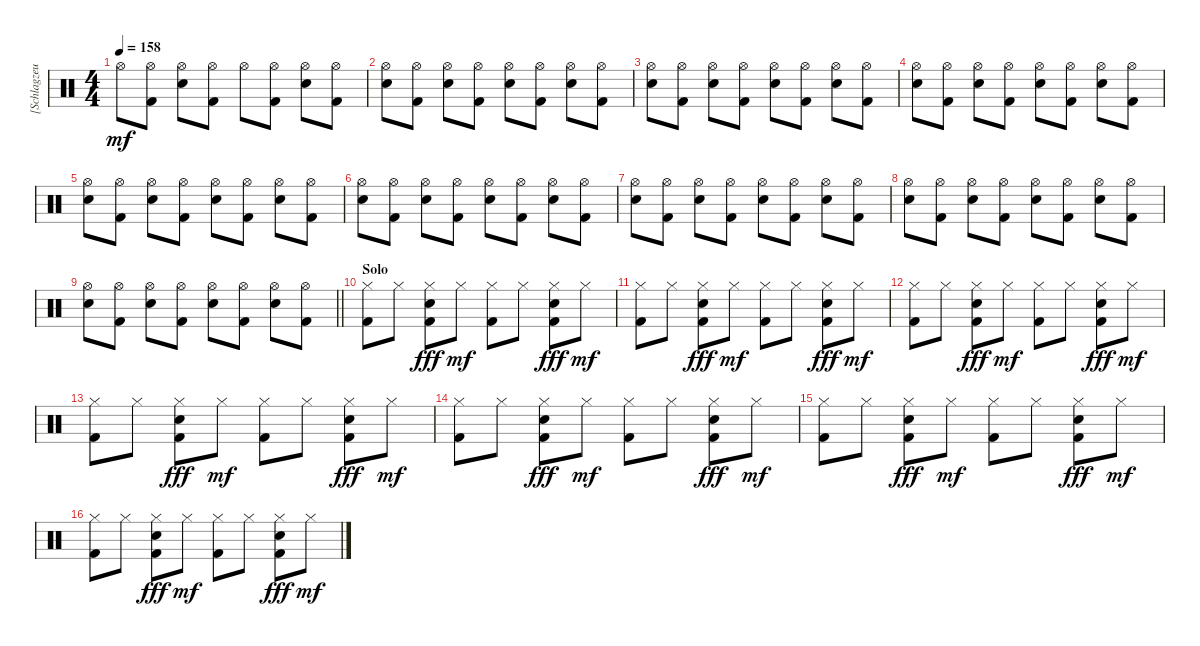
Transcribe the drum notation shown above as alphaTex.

\track ("[Schlagzeug]" "[Schlagzeu") {instrument percussion}
\staff {score}
\articulation defaults
\ts (4 4)
\tempo 158
\clef neutral
\ks c "Hi-Hat (open)".8{dy mf}
("Kick (hit) 2" "Hi-Hat (open)").8 ("Electric Snare (hit)" "Hi-Hat (open)").8 ("Kick (hit) 2" "Hi-Hat (open)").8 "Hi-Hat (open)".8 ("Kick (hit) 2" "Hi-Hat (open)").8 ("Electric Snare (hit)" "Hi-Hat (open)").8 ("Kick (hit) 2" "Hi-Hat (open)").8 |
("Electric Snare (hit)" "Hi-Hat (open)").8 ("Kick (hit) 2" "Hi-Hat (open)").8 ("Electric Snare (hit)" "Hi-Hat (open)").8 ("Kick (hit) 2" "Hi-Hat (open)").8 ("Electric Snare (hit)" "Hi-Hat (open)").8 ("Kick (hit) 2" "Hi-Hat (open)").8 ("Electric Snare (hit)" "Hi-Hat (open)").8 ("Kick (hit) 2" "Hi-Hat (open)").8 |
("Electric Snare (hit)" "Hi-Hat (open)").8 ("Kick (hit) 2" "Hi-Hat (open)").8 ("Electric Snare (hit)" "Hi-Hat (open)").8 ("Kick (hit) 2" "Hi-Hat (open)").8 ("Electric Snare (hit)" "Hi-Hat (open)").8 ("Kick (hit) 2" "Hi-Hat (open)").8 ("Electric Snare (hit)" "Hi-Hat (open)").8 ("Kick (hit) 2" "Hi-Hat (open)").8 |
("Electric Snare (hit)" "Hi-Hat (open)").8 ("Kick (hit) 2" "Hi-Hat (open)").8 ("Electric Snare (hit)" "Hi-Hat (open)").8 ("Kick (hit) 2" "Hi-Hat (open)").8 ("Electric Snare (hit)" "Hi-Hat (open)").8 ("Kick (hit) 2" "Hi-Hat (open)").8 ("Electric Snare (hit)" "Hi-Hat (open)").8 ("Kick (hit) 2" "Hi-Hat (open)").8 |
("Electric Snare (hit)" "Hi-Hat (open)").8 ("Kick (hit) 2" "Hi-Hat (open)").8 ("Electric Snare (hit)" "Hi-Hat (open)").8 ("Kick (hit) 2" "Hi-Hat (open)").8 ("Electric Snare (hit)" "Hi-Hat (open)").8 ("Kick (hit) 2" "Hi-Hat (open)").8 ("Electric Snare (hit)" "Hi-Hat (open)").8 ("Kick (hit) 2" "Hi-Hat (open)").8 |
("Electric Snare (hit)" "Hi-Hat (open)").8 ("Kick (hit) 2" "Hi-Hat (open)").8 ("Electric Snare (hit)" "Hi-Hat (open)").8 ("Kick (hit) 2" "Hi-Hat (open)").8 ("Electric Snare (hit)" "Hi-Hat (open)").8 ("Kick (hit) 2" "Hi-Hat (open)").8 ("Electric Snare (hit)" "Hi-Hat (open)").8 ("Kick (hit) 2" "Hi-Hat (open)").8 |
("Electric Snare (hit)" "Hi-Hat (open)").8 ("Kick (hit) 2" "Hi-Hat (open)").8 ("Electric Snare (hit)" "Hi-Hat (open)").8 ("Kick (hit) 2" "Hi-Hat (open)").8 ("Electric Snare (hit)" "Hi-Hat (open)").8 ("Kick (hit) 2" "Hi-Hat (open)").8 ("Electric Snare (hit)" "Hi-Hat (open)").8 ("Kick (hit) 2" "Hi-Hat (open)").8 |
("Electric Snare (hit)" "Hi-Hat (open)").8 ("Kick (hit) 2" "Hi-Hat (open)").8 ("Electric Snare (hit)" "Hi-Hat (open)").8 ("Kick (hit) 2" "Hi-Hat (open)").8 ("Electric Snare (hit)" "Hi-Hat (open)").8 ("Kick (hit) 2" "Hi-Hat (open)").8 ("Electric Snare (hit)" "Hi-Hat (open)").8 ("Kick (hit) 2" "Hi-Hat (open)").8 |
\barLineRight lightlight
("Electric Snare (hit)" "Hi-Hat (open)").8 ("Kick (hit) 2" "Hi-Hat (open)").8 ("Electric Snare (hit)" "Hi-Hat (open)").8 ("Kick (hit) 2" "Hi-Hat (open)").8 ("Electric Snare (hit)" "Hi-Hat (open)").8 ("Kick (hit) 2" "Hi-Hat (open)").8 ("Electric Snare (hit)" "Hi-Hat (open)").8 ("Kick (hit) 2" "Hi-Hat (open)").8 |
\section ("" "Solo")
("Kick (hit) 2" "Hi-Hat (closed)").8 "Hi-Hat (closed)".8 ("Electric Snare (hit)" "Hi-Hat (closed)" "Kick (hit) 2").8{dy fff} "Hi-Hat (closed)".8{dy mf} ("Kick (hit) 2" "Hi-Hat (closed)").8 "Hi-Hat (closed)".8 ("Electric Snare (hit)" "Hi-Hat (closed)" "Kick (hit) 2").8{dy fff} "Hi-Hat (closed)".8{dy mf} |
("Kick (hit) 2" "Hi-Hat (closed)").8 "Hi-Hat (closed)".8 ("Electric Snare (hit)" "Hi-Hat (closed)" "Kick (hit) 2").8{dy fff} "Hi-Hat (closed)".8{dy mf} ("Kick (hit) 2" "Hi-Hat (closed)").8 "Hi-Hat (closed)".8 ("Electric Snare (hit)" "Hi-Hat (closed)" "Kick (hit) 2").8{dy fff} "Hi-Hat (closed)".8{dy mf} |
("Kick (hit) 2" "Hi-Hat (closed)").8 "Hi-Hat (closed)".8 ("Electric Snare (hit)" "Hi-Hat (closed)" "Kick (hit) 2").8{dy fff} "Hi-Hat (closed)".8{dy mf} ("Kick (hit) 2" "Hi-Hat (closed)").8 "Hi-Hat (closed)".8 ("Electric Snare (hit)" "Hi-Hat (closed)" "Kick (hit) 2").8{dy fff} "Hi-Hat (closed)".8{dy mf} |
("Kick (hit) 2" "Hi-Hat (closed)").8 "Hi-Hat (closed)".8 ("Electric Snare (hit)" "Hi-Hat (closed)" "Kick (hit) 2").8{dy fff} "Hi-Hat (closed)".8{dy mf} ("Kick (hit) 2" "Hi-Hat (closed)").8 "Hi-Hat (closed)".8 ("Electric Snare (hit)" "Hi-Hat (closed)" "Kick (hit) 2").8{dy fff} "Hi-Hat (closed)".8{dy mf} |
("Kick (hit) 2" "Hi-Hat (closed)").8 "Hi-Hat (closed)".8 ("Electric Snare (hit)" "Hi-Hat (closed)" "Kick (hit) 2").8{dy fff} "Hi-Hat (closed)".8{dy mf} ("Kick (hit) 2" "Hi-Hat (closed)").8 "Hi-Hat (closed)".8 ("Electric Snare (hit)" "Hi-Hat (closed)" "Kick (hit) 2").8{dy fff} "Hi-Hat (closed)".8{dy mf} |
("Kick (hit) 2" "Hi-Hat (closed)").8 "Hi-Hat (closed)".8 ("Electric Snare (hit)" "Hi-Hat (closed)" "Kick (hit) 2").8{dy fff} "Hi-Hat (closed)".8{dy mf} ("Kick (hit) 2" "Hi-Hat (closed)").8 "Hi-Hat (closed)".8 ("Electric Snare (hit)" "Hi-Hat (closed)" "Kick (hit) 2").8{dy fff} "Hi-Hat (closed)".8{dy mf} |
("Kick (hit) 2" "Hi-Hat (closed)").8 "Hi-Hat (closed)".8 ("Electric Snare (hit)" "Hi-Hat (closed)" "Kick (hit) 2").8{dy fff} "Hi-Hat (closed)".8{dy mf} ("Kick (hit) 2" "Hi-Hat (closed)").8 "Hi-Hat (closed)".8 ("Electric Snare (hit)" "Hi-Hat (closed)" "Kick (hit) 2").8{dy fff} "Hi-Hat (closed)".8{dy mf}
